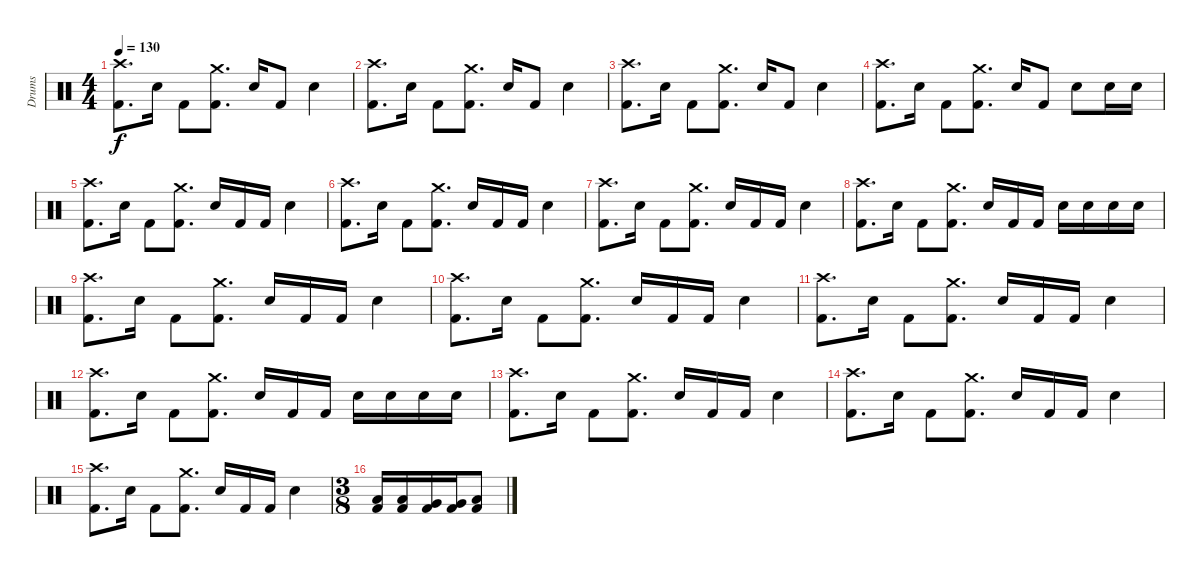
\track ("Drums" "Drums") {instrument percussion}
\staff {score}
\articulation defaults
\ts (4 4)
\tempo 130
\clef neutral
\ks c
("Crash high (hit)" "Kick (hit) 2").8{d dy f} "Electric Snare (hit)".16 "Kick (hit) 2".8 ("Crash medium (hit)" "Kick (hit) 2").8{d} "Electric Snare (hit)".16 "Kick (hit) 2".8 "Electric Snare (hit)".4 |
("Crash high (hit)" "Kick (hit) 2").8{d} "Electric Snare (hit)".16 "Kick (hit) 2".8 ("Crash medium (hit)" "Kick (hit) 2").8{d} "Electric Snare (hit)".16 "Kick (hit) 2".8 "Electric Snare (hit)".4 |
("Crash high (hit)" "Kick (hit) 2").8{d} "Electric Snare (hit)".16 "Kick (hit) 2".8 ("Crash medium (hit)" "Kick (hit) 2").8{d} "Electric Snare (hit)".16 "Kick (hit) 2".8 "Electric Snare (hit)".4 |
("Crash high (hit)" "Kick (hit) 2").8{d} "Electric Snare (hit)".16 "Kick (hit) 2".8 ("Crash medium (hit)" "Kick (hit) 2").8{d} "Electric Snare (hit)".16 "Kick (hit) 2".8 "Electric Snare (hit)".8 "Electric Snare (hit)".16 "Electric Snare (hit)".16 |
("Crash high (hit)" "Kick (hit) 2").8{d} "Electric Snare (hit)".16 "Kick (hit) 2".8 ("Crash medium (hit)" "Kick (hit) 2").8{d} "Electric Snare (hit)".16 "Kick (hit) 2".16 "Kick (hit) 2".16 "Electric Snare (hit)".4 |
("Crash high (hit)" "Kick (hit) 2").8{d} "Electric Snare (hit)".16 "Kick (hit) 2".8 ("Crash medium (hit)" "Kick (hit) 2").8{d} "Electric Snare (hit)".16 "Kick (hit) 2".16 "Kick (hit) 2".16 "Electric Snare (hit)".4 |
("Crash high (hit)" "Kick (hit) 2").8{d} "Electric Snare (hit)".16 "Kick (hit) 2".8 ("Crash medium (hit)" "Kick (hit) 2").8{d} "Electric Snare (hit)".16 "Kick (hit) 2".16 "Kick (hit) 2".16 "Electric Snare (hit)".4 |
("Crash high (hit)" "Kick (hit) 2").8{d} "Electric Snare (hit)".16 "Kick (hit) 2".8 ("Crash medium (hit)" "Kick (hit) 2").8{d} "Electric Snare (hit)".16 "Kick (hit) 2".16 "Kick (hit) 2".16 "Electric Snare (hit)".16 "Electric Snare (hit)".16 "Electric Snare (hit)".16 "Electric Snare (hit)".16 |
("Crash high (hit)" "Kick (hit) 2").8{d} "Electric Snare (hit)".16 "Kick (hit) 2".8 ("Crash medium (hit)" "Kick (hit) 2").8{d} "Electric Snare (hit)".16 "Kick (hit) 2".16 "Kick (hit) 2".16 "Electric Snare (hit)".4 |
("Crash high (hit)" "Kick (hit) 2").8{d} "Electric Snare (hit)".16 "Kick (hit) 2".8 ("Crash medium (hit)" "Kick (hit) 2").8{d} "Electric Snare (hit)".16 "Kick (hit) 2".16 "Kick (hit) 2".16 "Electric Snare (hit)".4 |
("Crash high (hit)" "Kick (hit) 2").8{d} "Electric Snare (hit)".16 "Kick (hit) 2".8 ("Crash medium (hit)" "Kick (hit) 2").8{d} "Electric Snare (hit)".16 "Kick (hit) 2".16 "Kick (hit) 2".16 "Electric Snare (hit)".4 |
("Crash high (hit)" "Kick (hit) 2").8{d} "Electric Snare (hit)".16 "Kick (hit) 2".8 ("Crash medium (hit)" "Kick (hit) 2").8{d} "Electric Snare (hit)".16 "Kick (hit) 2".16 "Kick (hit) 2".16 "Electric Snare (hit)".16 "Electric Snare (hit)".16 "Electric Snare (hit)".16 "Electric Snare (hit)".16 |
("Crash high (hit)" "Kick (hit) 2").8{d} "Electric Snare (hit)".16 "Kick (hit) 2".8 ("Crash medium (hit)" "Kick (hit) 2").8{d} "Electric Snare (hit)".16 "Kick (hit) 2".16 "Kick (hit) 2".16 "Electric Snare (hit)".4 |
("Crash high (hit)" "Kick (hit) 2").8{d} "Electric Snare (hit)".16 "Kick (hit) 2".8 ("Crash medium (hit)" "Kick (hit) 2").8{d} "Electric Snare (hit)".16 "Kick (hit) 2".16 "Kick (hit) 2".16 "Electric Snare (hit)".4 |
("Crash high (hit)" "Kick (hit) 2").8{d} "Electric Snare (hit)".16 "Kick (hit) 2".8 ("Crash medium (hit)" "Kick (hit) 2").8{d} "Electric Snare (hit)".16 "Kick (hit) 2".16 "Kick (hit) 2".16 "Electric Snare (hit)".4 |
\ts (3 8)
("Low Tom (hit)" "Kick (hit) 2").16 ("Low Tom (hit)" "Kick (hit) 2").16 ("Very Low Tom (hit)" "Kick (hit) 2").16 ("Very Low Tom (hit)" "Kick (hit) 2").16 ("Low Tom (hit)" "Kick (hit) 2").8
